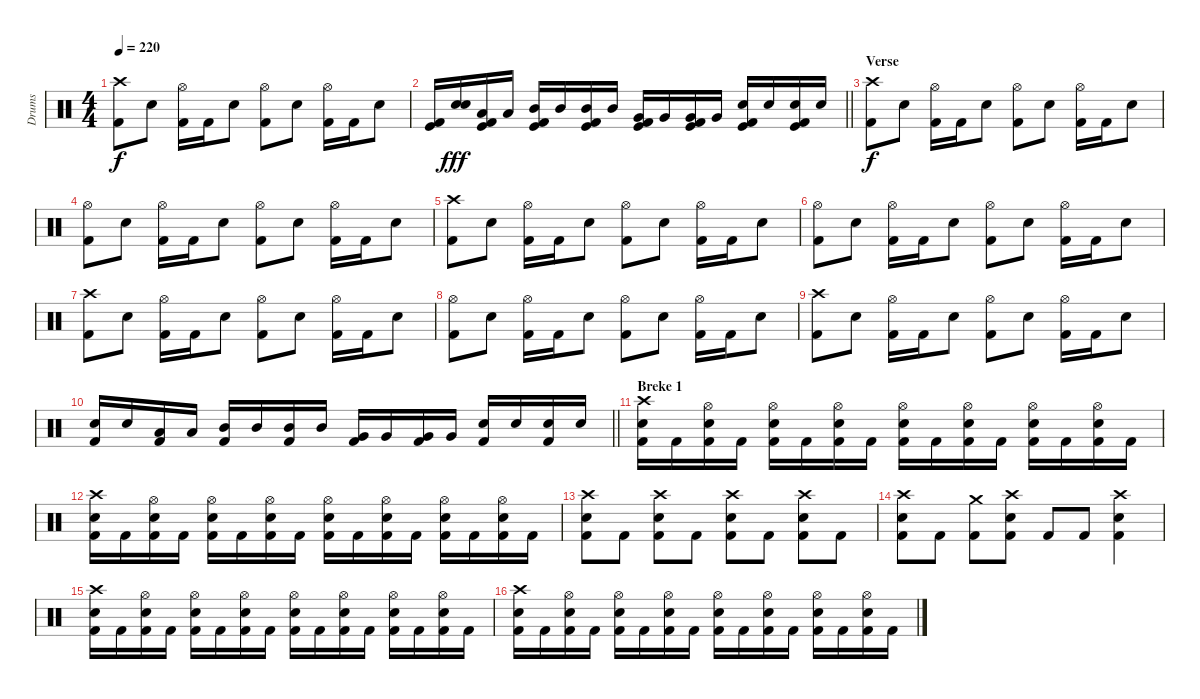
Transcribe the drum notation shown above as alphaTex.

\track ("Drums" "Drums") {instrument percussion}
\staff {score}
\articulation defaults
\ts (4 4)
\tempo 220
\clef neutral
\ks c
("Crash high (hit)" "Kick (hit) 2").8{dy f} "Electric Snare (hit)".8 ("Hi-Hat (open)" "Kick (hit) 2").16 "Kick (hit) 2".16 "Electric Snare (hit)".8 ("Hi-Hat (open)" "Kick (hit) 2").8 "Electric Snare (hit)".8 ("Hi-Hat (open)" "Kick (hit) 2").16 "Kick (hit) 2".16 "Electric Snare (hit)".8 |
\barLineRight lightlight
("Kick (hit) 2" "Kick (hit)").16 ("Electric Snare (hit)" "Snare (hit) 2").16{dy fff} ("Kick (hit) 2" "Kick (hit)" "Low Tom (hit)").16 "Low Tom (hit)".16 ("Kick (hit) 2" "Kick (hit)" "Mid Tom (hit)").16 "Mid Tom (hit)".16 ("Kick (hit) 2" "Kick (hit)" "Mid Tom (hit)").16 "Mid Tom (hit)".16 ("Kick (hit) 2" "Kick (hit)" "Very Low Tom (hit)").16 "Very Low Tom (hit)".16 ("Kick (hit) 2" "Kick (hit)" "Very Low Tom (hit)").16 "Very Low Tom (hit)".16 ("Kick (hit) 2" "Kick (hit)" "Electric Snare (hit)").16 "Electric Snare (hit)".16 ("Kick (hit) 2" "Kick (hit)" "Electric Snare (hit)").16 "Electric Snare (hit)".16 |
\section ("" "Verse")
("Crash high (hit)" "Kick (hit) 2").8{dy f} "Electric Snare (hit)".8 ("Hi-Hat (open)" "Kick (hit) 2").16 "Kick (hit) 2".16 "Electric Snare (hit)".8 ("Hi-Hat (open)" "Kick (hit) 2").8 "Electric Snare (hit)".8 ("Hi-Hat (open)" "Kick (hit) 2").16 "Kick (hit) 2".16 "Electric Snare (hit)".8 |
("Hi-Hat (open)" "Kick (hit) 2").8 "Electric Snare (hit)".8 ("Hi-Hat (open)" "Kick (hit) 2").16 "Kick (hit) 2".16 "Electric Snare (hit)".8 ("Hi-Hat (open)" "Kick (hit) 2").8 "Electric Snare (hit)".8 ("Hi-Hat (open)" "Kick (hit) 2").16 "Kick (hit) 2".16 "Electric Snare (hit)".8 |
("Crash high (hit)" "Kick (hit) 2").8 "Electric Snare (hit)".8 ("Hi-Hat (open)" "Kick (hit) 2").16 "Kick (hit) 2".16 "Electric Snare (hit)".8 ("Hi-Hat (open)" "Kick (hit) 2").8 "Electric Snare (hit)".8 ("Hi-Hat (open)" "Kick (hit) 2").16 "Kick (hit) 2".16 "Electric Snare (hit)".8 |
("Hi-Hat (open)" "Kick (hit) 2").8 "Electric Snare (hit)".8 ("Hi-Hat (open)" "Kick (hit) 2").16 "Kick (hit) 2".16 "Electric Snare (hit)".8 ("Hi-Hat (open)" "Kick (hit) 2").8 "Electric Snare (hit)".8 ("Hi-Hat (open)" "Kick (hit) 2").16 "Kick (hit) 2".16 "Electric Snare (hit)".8 |
("Crash high (hit)" "Kick (hit) 2").8 "Electric Snare (hit)".8 ("Hi-Hat (open)" "Kick (hit) 2").16 "Kick (hit) 2".16 "Electric Snare (hit)".8 ("Hi-Hat (open)" "Kick (hit) 2").8 "Electric Snare (hit)".8 ("Hi-Hat (open)" "Kick (hit) 2").16 "Kick (hit) 2".16 "Electric Snare (hit)".8 |
("Hi-Hat (open)" "Kick (hit) 2").8 "Electric Snare (hit)".8 ("Hi-Hat (open)" "Kick (hit) 2").16 "Kick (hit) 2".16 "Electric Snare (hit)".8 ("Hi-Hat (open)" "Kick (hit) 2").8 "Electric Snare (hit)".8 ("Hi-Hat (open)" "Kick (hit) 2").16 "Kick (hit) 2".16 "Electric Snare (hit)".8 |
("Crash high (hit)" "Kick (hit) 2").8 "Electric Snare (hit)".8 ("Hi-Hat (open)" "Kick (hit) 2").16 "Kick (hit) 2".16 "Electric Snare (hit)".8 ("Hi-Hat (open)" "Kick (hit) 2").8 "Electric Snare (hit)".8 ("Hi-Hat (open)" "Kick (hit) 2").16 "Kick (hit) 2".16 "Electric Snare (hit)".8 |
\barLineRight lightlight
("Electric Snare (hit)" "Kick (hit) 2").16 "Electric Snare (hit)".16 ("Low Tom (hit)" "Kick (hit) 2").16 "Low Tom (hit)".16 ("Mid Tom (hit)" "Kick (hit) 2").16 "Mid Tom (hit)".16 ("Mid Tom (hit)" "Kick (hit) 2").16 "Mid Tom (hit)".16 ("Very Low Tom (hit)" "Kick (hit) 2").16 "Very Low Tom (hit)".16 ("Very Low Tom (hit)" "Kick (hit) 2").16 "Very Low Tom (hit)".16 ("Electric Snare (hit)" "Kick (hit) 2").16 "Electric Snare (hit)".16 ("Electric Snare (hit)" "Kick (hit) 2").16 "Electric Snare (hit)".16 |
\section ("" "Breke 1")
("Kick (hit) 2" "Crash high (hit)" "Electric Snare (hit)").16 "Kick (hit) 2".16 ("Kick (hit) 2" "Hi-Hat (open)" "Electric Snare (hit)").16 "Kick (hit) 2".16 ("Kick (hit) 2" "Hi-Hat (open)" "Electric Snare (hit)").16 "Kick (hit) 2".16 ("Kick (hit) 2" "Hi-Hat (open)" "Electric Snare (hit)").16 "Kick (hit) 2".16 ("Kick (hit) 2" "Hi-Hat (open)" "Electric Snare (hit)").16 "Kick (hit) 2".16 ("Kick (hit) 2" "Hi-Hat (open)" "Electric Snare (hit)").16 "Kick (hit) 2".16 ("Kick (hit) 2" "Hi-Hat (open)" "Electric Snare (hit)").16 "Kick (hit) 2".16 ("Kick (hit) 2" "Hi-Hat (open)" "Electric Snare (hit)").16 "Kick (hit) 2".16 |
("Kick (hit) 2" "Crash high (hit)" "Electric Snare (hit)").16 "Kick (hit) 2".16 ("Kick (hit) 2" "Hi-Hat (open)" "Electric Snare (hit)").16 "Kick (hit) 2".16 ("Kick (hit) 2" "Hi-Hat (open)" "Electric Snare (hit)").16 "Kick (hit) 2".16 ("Kick (hit) 2" "Hi-Hat (open)" "Electric Snare (hit)").16 "Kick (hit) 2".16 ("Kick (hit) 2" "Hi-Hat (open)" "Electric Snare (hit)").16 "Kick (hit) 2".16 ("Kick (hit) 2" "Hi-Hat (open)" "Electric Snare (hit)").16 "Kick (hit) 2".16 ("Kick (hit) 2" "Hi-Hat (open)" "Electric Snare (hit)").16 "Kick (hit) 2".16 ("Kick (hit) 2" "Hi-Hat (open)" "Electric Snare (hit)").16 "Kick (hit) 2".16 |
("Electric Snare (hit)" "Crash high (hit)" "Kick (hit) 2").8 "Kick (hit) 2".8 ("Electric Snare (hit)" "Crash high (hit)" "Kick (hit) 2").8 "Kick (hit) 2".8 ("Electric Snare (hit)" "Crash high (hit)" "Kick (hit) 2").8 "Kick (hit) 2".8 ("Electric Snare (hit)" "Crash high (hit)" "Kick (hit) 2").8 "Kick (hit) 2".8 |
("Crash high (hit)" "Electric Snare (hit)" "Kick (hit) 2").8 "Kick (hit) 2".8 ("Kick (hit) 2" "Crash medium (hit)").8 ("Electric Snare (hit)" "Crash high (hit)" "Kick (hit) 2").8 "Kick (hit) 2".8 "Kick (hit) 2".8 ("Electric Snare (hit)" "Crash high (hit)" "Kick (hit) 2").4 |
("Kick (hit) 2" "Crash high (hit)" "Electric Snare (hit)").16 "Kick (hit) 2".16 ("Kick (hit) 2" "Hi-Hat (open)" "Electric Snare (hit)").16 "Kick (hit) 2".16 ("Kick (hit) 2" "Hi-Hat (open)" "Electric Snare (hit)").16 "Kick (hit) 2".16 ("Kick (hit) 2" "Hi-Hat (open)" "Electric Snare (hit)").16 "Kick (hit) 2".16 ("Kick (hit) 2" "Hi-Hat (open)" "Electric Snare (hit)").16 "Kick (hit) 2".16 ("Kick (hit) 2" "Hi-Hat (open)" "Electric Snare (hit)").16 "Kick (hit) 2".16 ("Kick (hit) 2" "Hi-Hat (open)" "Electric Snare (hit)").16 "Kick (hit) 2".16 ("Kick (hit) 2" "Hi-Hat (open)" "Electric Snare (hit)").16 "Kick (hit) 2".16 |
("Kick (hit) 2" "Crash high (hit)" "Electric Snare (hit)").16 "Kick (hit) 2".16 ("Kick (hit) 2" "Hi-Hat (open)" "Electric Snare (hit)").16 "Kick (hit) 2".16 ("Kick (hit) 2" "Hi-Hat (open)" "Electric Snare (hit)").16 "Kick (hit) 2".16 ("Kick (hit) 2" "Hi-Hat (open)" "Electric Snare (hit)").16 "Kick (hit) 2".16 ("Kick (hit) 2" "Hi-Hat (open)" "Electric Snare (hit)").16 "Kick (hit) 2".16 ("Kick (hit) 2" "Hi-Hat (open)" "Electric Snare (hit)").16 "Kick (hit) 2".16 ("Kick (hit) 2" "Hi-Hat (open)" "Electric Snare (hit)").16 "Kick (hit) 2".16 ("Kick (hit) 2" "Hi-Hat (open)" "Electric Snare (hit)").16 "Kick (hit) 2".16
